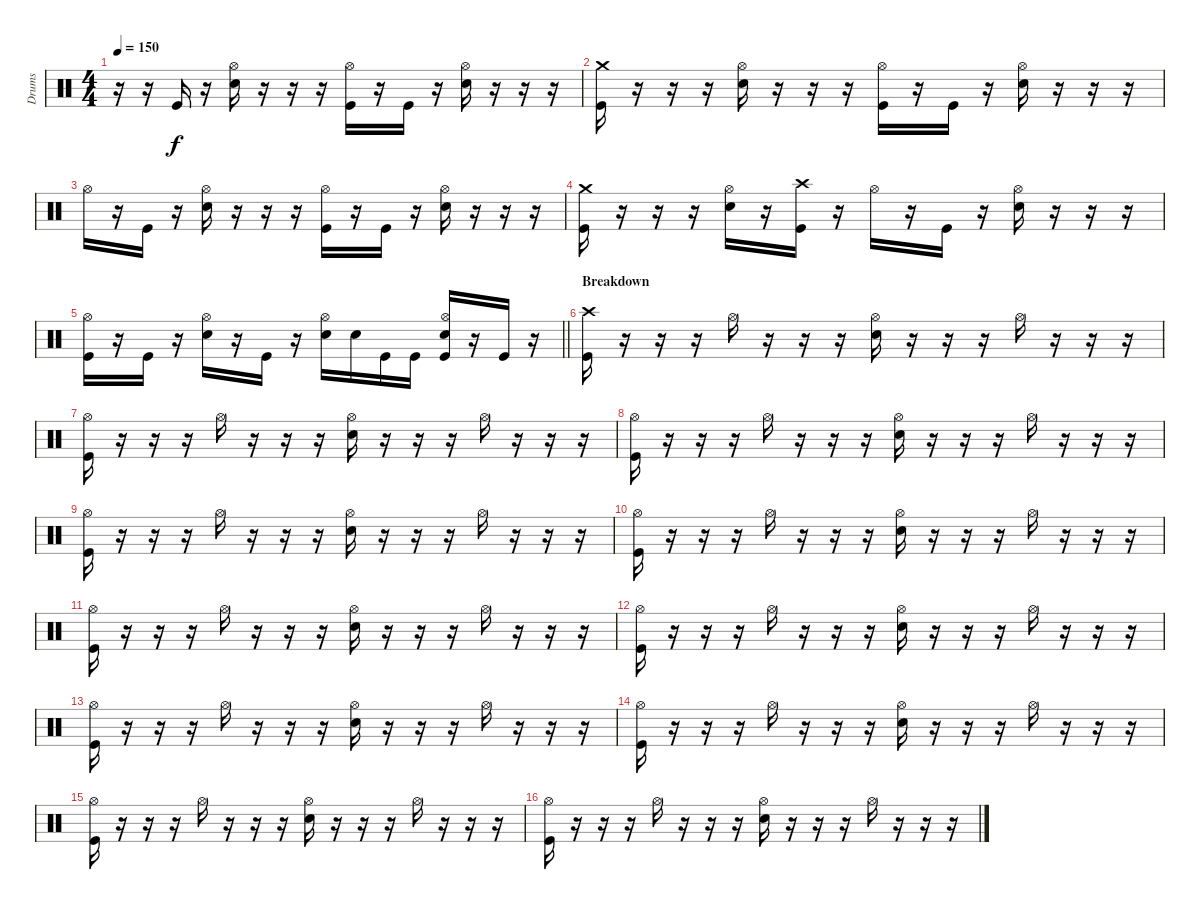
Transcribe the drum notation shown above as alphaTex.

\track ("Drums" "Drums") {instrument percussion}
\staff {score}
\articulation defaults
\ts (4 4)
\tempo 150
\clef neutral
\ks c
r.16{dy f} r.16 "Kick (hit)".16 r.16 ("Hi-Hat (open)" "Snare (hit) 2").16 r.16 r.16 r.16 ("Hi-Hat (open)" "Kick (hit)").16 r.16 "Kick (hit)".16 r.16 ("Hi-Hat (open)" "Snare (hit) 2").16 r.16 r.16 r.16 |
("Crash medium (hit)" "Kick (hit)").16 r.16 r.16 r.16 ("Hi-Hat (open)" "Snare (hit) 2").16 r.16 r.16 r.16 ("Hi-Hat (open)" "Kick (hit)").16 r.16 "Kick (hit)".16 r.16 ("Hi-Hat (open)" "Snare (hit) 2").16 r.16 r.16 r.16 |
"Hi-Hat (open)".16 r.16 "Kick (hit)".16 r.16 ("Hi-Hat (open)" "Snare (hit) 2").16 r.16 r.16 r.16 ("Hi-Hat (open)" "Kick (hit)").16 r.16 "Kick (hit)".16 r.16 ("Hi-Hat (open)" "Snare (hit) 2").16 r.16 r.16 r.16 |
("Crash medium (hit)" "Kick (hit)").16 r.16 r.16 r.16 ("Hi-Hat (open)" "Snare (hit) 2").16 r.16 ("Crash high (hit)" "Kick (hit)").16 r.16 "Hi-Hat (open)".16 r.16 "Kick (hit)".16 r.16 ("Hi-Hat (open)" "Snare (hit) 2").16 r.16 r.16 r.16 |
\barLineRight lightlight
("Hi-Hat (open)" "Kick (hit)").16 r.16 "Kick (hit)".16 r.16 ("Hi-Hat (open)" "Snare (hit) 2").16 r.16 "Kick (hit)".16 r.16 ("Hi-Hat (open)" "Snare (hit) 2").16 "Snare (hit) 2".16 "Kick (hit)".16 "Kick (hit)".16 ("Hi-Hat (open)" "Snare (hit) 2" "Kick (hit)").16 r.16 "Kick (hit)".16 r.16 |
\section ("" "Breakdown")
("Crash high (hit)" "Kick (hit)").16 r.16 r.16 r.16 "Hi-Hat (open)".16 r.16 r.16 r.16 ("Hi-Hat (open)" "Snare (hit) 2").16 r.16 r.16 r.16 "Hi-Hat (open)".16 r.16 r.16 r.16 |
("Hi-Hat (open)" "Kick (hit)").16 r.16 r.16 r.16 "Hi-Hat (open)".16 r.16 r.16 r.16 ("Hi-Hat (open)" "Snare (hit) 2").16 r.16 r.16 r.16 "Hi-Hat (open)".16 r.16 r.16 r.16 |
("Hi-Hat (open)" "Kick (hit)").16 r.16 r.16 r.16 "Hi-Hat (open)".16 r.16 r.16 r.16 ("Hi-Hat (open)" "Snare (hit) 2").16 r.16 r.16 r.16 "Hi-Hat (open)".16 r.16 r.16 r.16 |
("Hi-Hat (open)" "Kick (hit)").16 r.16 r.16 r.16 "Hi-Hat (open)".16 r.16 r.16 r.16 ("Hi-Hat (open)" "Snare (hit) 2").16 r.16 r.16 r.16 "Hi-Hat (open)".16 r.16 r.16 r.16 |
("Hi-Hat (open)" "Kick (hit)").16 r.16 r.16 r.16 "Hi-Hat (open)".16 r.16 r.16 r.16 ("Hi-Hat (open)" "Snare (hit) 2").16 r.16 r.16 r.16 "Hi-Hat (open)".16 r.16 r.16 r.16 |
("Hi-Hat (open)" "Kick (hit)").16 r.16 r.16 r.16 "Hi-Hat (open)".16 r.16 r.16 r.16 ("Hi-Hat (open)" "Snare (hit) 2").16 r.16 r.16 r.16 "Hi-Hat (open)".16 r.16 r.16 r.16 |
("Hi-Hat (open)" "Kick (hit)").16 r.16 r.16 r.16 "Hi-Hat (open)".16 r.16 r.16 r.16 ("Hi-Hat (open)" "Snare (hit) 2").16 r.16 r.16 r.16 "Hi-Hat (open)".16 r.16 r.16 r.16 |
("Hi-Hat (open)" "Kick (hit)").16 r.16 r.16 r.16 "Hi-Hat (open)".16 r.16 r.16 r.16 ("Hi-Hat (open)" "Snare (hit) 2").16 r.16 r.16 r.16 "Hi-Hat (open)".16 r.16 r.16 r.16 |
("Hi-Hat (open)" "Kick (hit)").16 r.16 r.16 r.16 "Hi-Hat (open)".16 r.16 r.16 r.16 ("Hi-Hat (open)" "Snare (hit) 2").16 r.16 r.16 r.16 "Hi-Hat (open)".16 r.16 r.16 r.16 |
("Hi-Hat (open)" "Kick (hit)").16 r.16 r.16 r.16 "Hi-Hat (open)".16 r.16 r.16 r.16 ("Hi-Hat (open)" "Snare (hit) 2").16 r.16 r.16 r.16 "Hi-Hat (open)".16 r.16 r.16 r.16 |
("Hi-Hat (open)" "Kick (hit)").16 r.16 r.16 r.16 "Hi-Hat (open)".16 r.16 r.16 r.16 ("Hi-Hat (open)" "Snare (hit) 2").16 r.16 r.16 r.16 "Hi-Hat (open)".16 r.16 r.16 r.16
